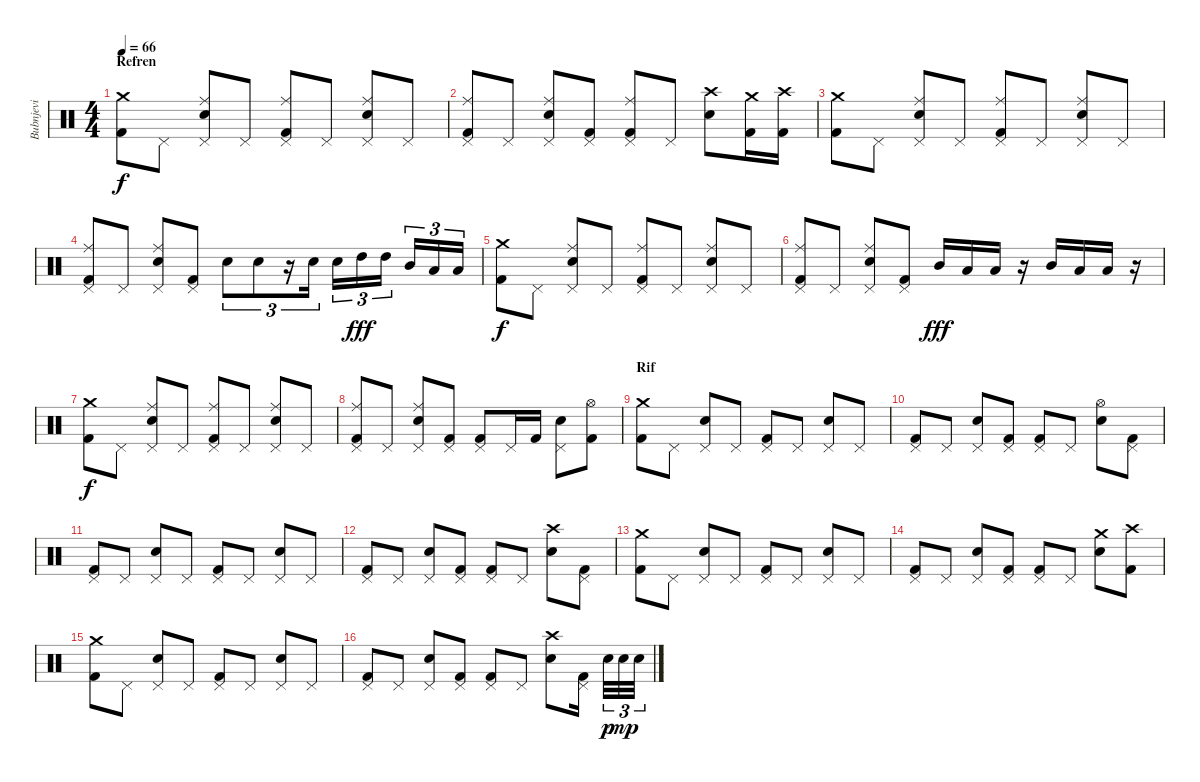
\track ("Bubnjevi" "Bubnjevi") {instrument percussion}
\staff {score}
\articulation defaults
\ts (4 4)
\section ("" "Refren")
\tempo 66
\clef neutral
\ks c
("Crash medium (hit)" "Kick (hit) 2").8{dy f} "Pedal Hi-Hat (hit)".8 ("Pedal Hi-Hat (hit)" "Electric Snare (hit)" "Ride (middle)").8 "Pedal Hi-Hat (hit)".8 ("Pedal Hi-Hat (hit)" "Kick (hit) 2" "Ride (middle)").8 "Pedal Hi-Hat (hit)".8 ("Pedal Hi-Hat (hit)" "Electric Snare (hit)" "Ride (middle)").8 "Pedal Hi-Hat (hit)".8 |
("Pedal Hi-Hat (hit)" "Kick (hit) 2" "Ride (middle)").8 "Pedal Hi-Hat (hit)".8 ("Pedal Hi-Hat (hit)" "Electric Snare (hit)" "Ride (middle)").8 ("Pedal Hi-Hat (hit)" "Kick (hit) 2").8 ("Pedal Hi-Hat (hit)" "Kick (hit) 2" "Ride (middle)").8 "Pedal Hi-Hat (hit)".8 ("Crash high (hit)" "Electric Snare (hit)").8 ("Crash medium (hit)" "Kick (hit) 2").16 ("Crash high (hit)" "Kick (hit) 2").16 |
("Crash medium (hit)" "Kick (hit) 2").8 "Pedal Hi-Hat (hit)".8 ("Pedal Hi-Hat (hit)" "Electric Snare (hit)" "Ride (middle)").8 "Pedal Hi-Hat (hit)".8 ("Pedal Hi-Hat (hit)" "Kick (hit) 2" "Ride (middle)").8 "Pedal Hi-Hat (hit)".8 ("Pedal Hi-Hat (hit)" "Electric Snare (hit)" "Ride (middle)").8 "Pedal Hi-Hat (hit)".8 |
("Pedal Hi-Hat (hit)" "Kick (hit) 2" "Ride (middle)").8 "Pedal Hi-Hat (hit)".8 ("Pedal Hi-Hat (hit)" "Electric Snare (hit)" "Ride (middle)").8 ("Pedal Hi-Hat (hit)" "Kick (hit) 2").8 "Electric Snare (hit)".8{tu (3 2)} "Electric Snare (hit)".8{tu (3 2)} r.16{tu (3 2)} "Electric Snare (hit)".16{tu (3 2)} "Electric Snare (hit)".16{tu (3 2)} "High Tom (hit)".16{tu (3 2) dy fff} "High Tom (hit)".16{tu (3 2)} "Mid Tom (hit)".16{tu (3 2)} "Low Tom (hit)".16{tu (3 2)} "Low Tom (hit)".16{tu (3 2)} |
("Crash medium (hit)" "Kick (hit) 2").8{dy f} "Pedal Hi-Hat (hit)".8 ("Pedal Hi-Hat (hit)" "Electric Snare (hit)" "Ride (middle)").8 "Pedal Hi-Hat (hit)".8 ("Pedal Hi-Hat (hit)" "Kick (hit) 2" "Ride (middle)").8 "Pedal Hi-Hat (hit)".8 ("Pedal Hi-Hat (hit)" "Electric Snare (hit)" "Ride (middle)").8 "Pedal Hi-Hat (hit)".8 |
("Pedal Hi-Hat (hit)" "Kick (hit) 2" "Ride (middle)").8 "Pedal Hi-Hat (hit)".8 ("Pedal Hi-Hat (hit)" "Electric Snare (hit)" "Ride (middle)").8 ("Pedal Hi-Hat (hit)" "Kick (hit) 2").8 "Mid Tom (hit)".16{dy fff} "Low Tom (hit)".16 "Low Tom (hit)".16 r.16 "Mid Tom (hit)".16 "Low Tom (hit)".16 "Low Tom (hit)".16 r.16 |
("Crash medium (hit)" "Kick (hit) 2").8{dy f} "Pedal Hi-Hat (hit)".8 ("Pedal Hi-Hat (hit)" "Electric Snare (hit)" "Ride (middle)").8 "Pedal Hi-Hat (hit)".8 ("Pedal Hi-Hat (hit)" "Kick (hit) 2" "Ride (middle)").8 "Pedal Hi-Hat (hit)".8 ("Pedal Hi-Hat (hit)" "Electric Snare (hit)" "Ride (middle)").8 "Pedal Hi-Hat (hit)".8 |
("Pedal Hi-Hat (hit)" "Kick (hit) 2" "Ride (middle)").8 "Pedal Hi-Hat (hit)".8 ("Pedal Hi-Hat (hit)" "Electric Snare (hit)" "Ride (middle)").8 ("Pedal Hi-Hat (hit)" "Kick (hit) 2").8 ("Pedal Hi-Hat (hit)" "Kick (hit) 2").8 "Pedal Hi-Hat (hit)".16 "Kick (hit) 2".16 ("Pedal Hi-Hat (hit)" "Electric Snare (hit)").8 ("Hi-Hat (open)" "Kick (hit) 2").8 |
\section ("" "Rif")
("Crash medium (hit)" "Kick (hit) 2").8 "Pedal Hi-Hat (hit)".8 ("Pedal Hi-Hat (hit)" "Electric Snare (hit)").8 "Pedal Hi-Hat (hit)".8 ("Pedal Hi-Hat (hit)" "Kick (hit) 2").8 "Pedal Hi-Hat (hit)".8 ("Pedal Hi-Hat (hit)" "Electric Snare (hit)").8 "Pedal Hi-Hat (hit)".8 |
("Pedal Hi-Hat (hit)" "Kick (hit) 2").8 "Pedal Hi-Hat (hit)".8 ("Pedal Hi-Hat (hit)" "Electric Snare (hit)").8 ("Pedal Hi-Hat (hit)" "Kick (hit) 2").8 ("Pedal Hi-Hat (hit)" "Kick (hit) 2").8 "Pedal Hi-Hat (hit)".8 ("Hi-Hat (open)" "Electric Snare (hit)").8 ("Pedal Hi-Hat (hit)" "Kick (hit) 2").8 |
("Pedal Hi-Hat (hit)" "Kick (hit) 2").8 "Pedal Hi-Hat (hit)".8 ("Pedal Hi-Hat (hit)" "Electric Snare (hit)").8 "Pedal Hi-Hat (hit)".8 ("Pedal Hi-Hat (hit)" "Kick (hit) 2").8 "Pedal Hi-Hat (hit)".8 ("Pedal Hi-Hat (hit)" "Electric Snare (hit)").8 "Pedal Hi-Hat (hit)".8 |
("Pedal Hi-Hat (hit)" "Kick (hit) 2").8 "Pedal Hi-Hat (hit)".8 ("Pedal Hi-Hat (hit)" "Electric Snare (hit)").8 ("Pedal Hi-Hat (hit)" "Kick (hit) 2").8 ("Pedal Hi-Hat (hit)" "Kick (hit) 2").8 "Pedal Hi-Hat (hit)".8 ("Crash high (hit)" "Electric Snare (hit)").8 ("Pedal Hi-Hat (hit)" "Kick (hit) 2").8 |
("Crash medium (hit)" "Kick (hit) 2").8 "Pedal Hi-Hat (hit)".8 ("Pedal Hi-Hat (hit)" "Electric Snare (hit)").8 "Pedal Hi-Hat (hit)".8 ("Pedal Hi-Hat (hit)" "Kick (hit) 2").8 "Pedal Hi-Hat (hit)".8 ("Pedal Hi-Hat (hit)" "Electric Snare (hit)").8 "Pedal Hi-Hat (hit)".8 |
("Pedal Hi-Hat (hit)" "Kick (hit) 2").8 "Pedal Hi-Hat (hit)".8 ("Pedal Hi-Hat (hit)" "Electric Snare (hit)").8 ("Pedal Hi-Hat (hit)" "Kick (hit) 2").8 ("Pedal Hi-Hat (hit)" "Kick (hit) 2").8 "Pedal Hi-Hat (hit)".8 ("Crash medium (hit)" "Electric Snare (hit)").8 ("Crash high (hit)" "Kick (hit) 2").8 |
("Crash medium (hit)" "Kick (hit) 2").8 "Pedal Hi-Hat (hit)".8 ("Pedal Hi-Hat (hit)" "Electric Snare (hit)").8 "Pedal Hi-Hat (hit)".8 ("Pedal Hi-Hat (hit)" "Kick (hit) 2").8 "Pedal Hi-Hat (hit)".8 ("Pedal Hi-Hat (hit)" "Electric Snare (hit)").8 "Pedal Hi-Hat (hit)".8 |
("Pedal Hi-Hat (hit)" "Kick (hit) 2").8 "Pedal Hi-Hat (hit)".8 ("Pedal Hi-Hat (hit)" "Electric Snare (hit)").8 ("Pedal Hi-Hat (hit)" "Kick (hit) 2").8 ("Pedal Hi-Hat (hit)" "Kick (hit) 2").8 "Pedal Hi-Hat (hit)".8 ("Crash high (hit)" "Electric Snare (hit)").8 ("Pedal Hi-Hat (hit)" "Kick (hit) 2").16 "Electric Snare (hit)".32{tu (3 2) dy p} "Electric Snare (hit)".32{tu (3 2) dy mp} "Electric Snare (hit)".32{tu (3 2)}
